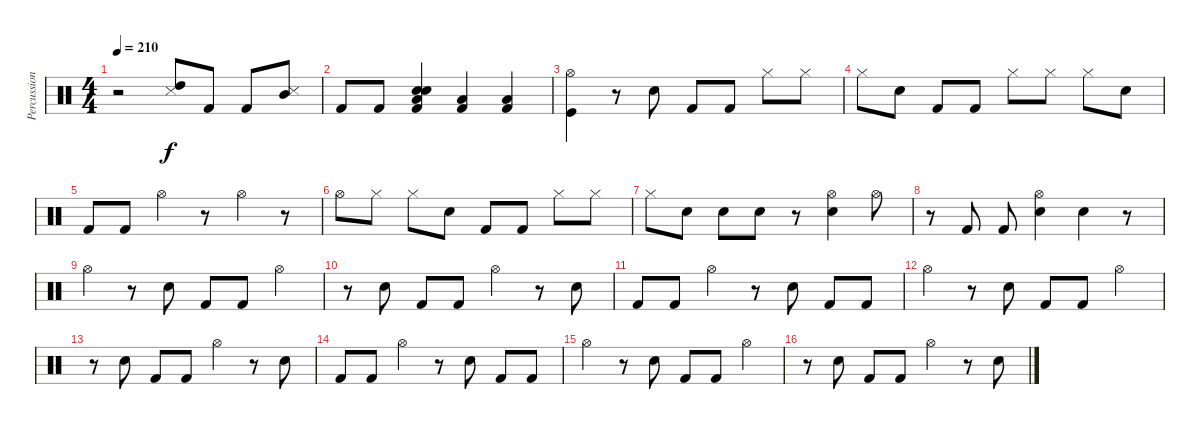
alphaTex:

\track ("Percussion" "Percussion") {instrument percussion}
\staff {score}
\articulation defaults
\ts (4 4)
\tempo 210
\clef neutral
\ks c
r.2{dy f} ("High Tom (hit)" "Snare (side stick) 3").8 "Kick (hit) 2".8 "Kick (hit) 2".8 ("Mid Tom (hit)" "Snare (side stick) 3").8 |
"Kick (hit) 2".8 "Kick (hit) 2".8 ("Electric Snare (hit)" "Snare (hit) 2" "Kick (hit) 2" "Low Floor Tom (hit)").4 ("Kick (hit) 2" "Low Floor Tom (hit)").4 ("Kick (hit) 2" "Low Floor Tom (hit)").4 |
("Hi-Hat (open)" "Kick (hit)").4 r.8 "Snare (hit) 2".8 "Kick (hit) 2".8 "Kick (hit) 2".8 "Hi-Hat (closed)".8 "Hi-Hat (closed)".8 |
"Hi-Hat (closed)".8 "Snare (hit) 2".8 "Kick (hit) 2".8 "Kick (hit) 2".8 "Hi-Hat (closed)".8 "Hi-Hat (closed)".8 "Hi-Hat (closed)".8 "Snare (hit) 2".8 |
"Kick (hit) 2".8 "Kick (hit) 2".8 "Hi-Hat (open)".4 r.8 "Hi-Hat (open)".4 r.8 |
"Hi-Hat (open)".8 "Hi-Hat (closed)".8 "Hi-Hat (closed)".8 "Snare (hit) 2".8 "Kick (hit) 2".8 "Kick (hit) 2".8 "Hi-Hat (closed)".8 "Hi-Hat (closed)".8 |
"Hi-Hat (closed)".8 "Snare (hit) 2".8 "Snare (hit) 2".8 "Snare (hit) 2".8 r.8 ("Hi-Hat (open)" "Snare (hit) 2").4 "Hi-Hat (open)".8 |
r.8 "Kick (hit) 2".8 "Kick (hit) 2".8 ("Hi-Hat (open)" "Snare (hit) 2").4 "Snare (hit) 2".4 r.8 |
"Hi-Hat (open)".4 r.8 "Snare (hit) 2".8 "Kick (hit) 2".8 "Kick (hit) 2".8 "Hi-Hat (open)".4 |
r.8 "Snare (hit) 2".8 "Kick (hit) 2".8 "Kick (hit) 2".8 "Hi-Hat (open)".4 r.8 "Snare (hit) 2".8 |
"Kick (hit) 2".8 "Kick (hit) 2".8 "Hi-Hat (open)".4 r.8 "Snare (hit) 2".8 "Kick (hit) 2".8 "Kick (hit) 2".8 |
"Hi-Hat (open)".4 r.8 "Snare (hit) 2".8 "Kick (hit) 2".8 "Kick (hit) 2".8 "Hi-Hat (open)".4 |
r.8 "Snare (hit) 2".8 "Kick (hit) 2".8 "Kick (hit) 2".8 "Hi-Hat (open)".4 r.8 "Snare (hit) 2".8 |
"Kick (hit) 2".8 "Kick (hit) 2".8 "Hi-Hat (open)".4 r.8 "Snare (hit) 2".8 "Kick (hit) 2".8 "Kick (hit) 2".8 |
"Hi-Hat (open)".4 r.8 "Snare (hit) 2".8 "Kick (hit) 2".8 "Kick (hit) 2".8 "Hi-Hat (open)".4 |
r.8 "Snare (hit) 2".8 "Kick (hit) 2".8 "Kick (hit) 2".8 "Hi-Hat (open)".4 r.8 "Snare (hit) 2".8
